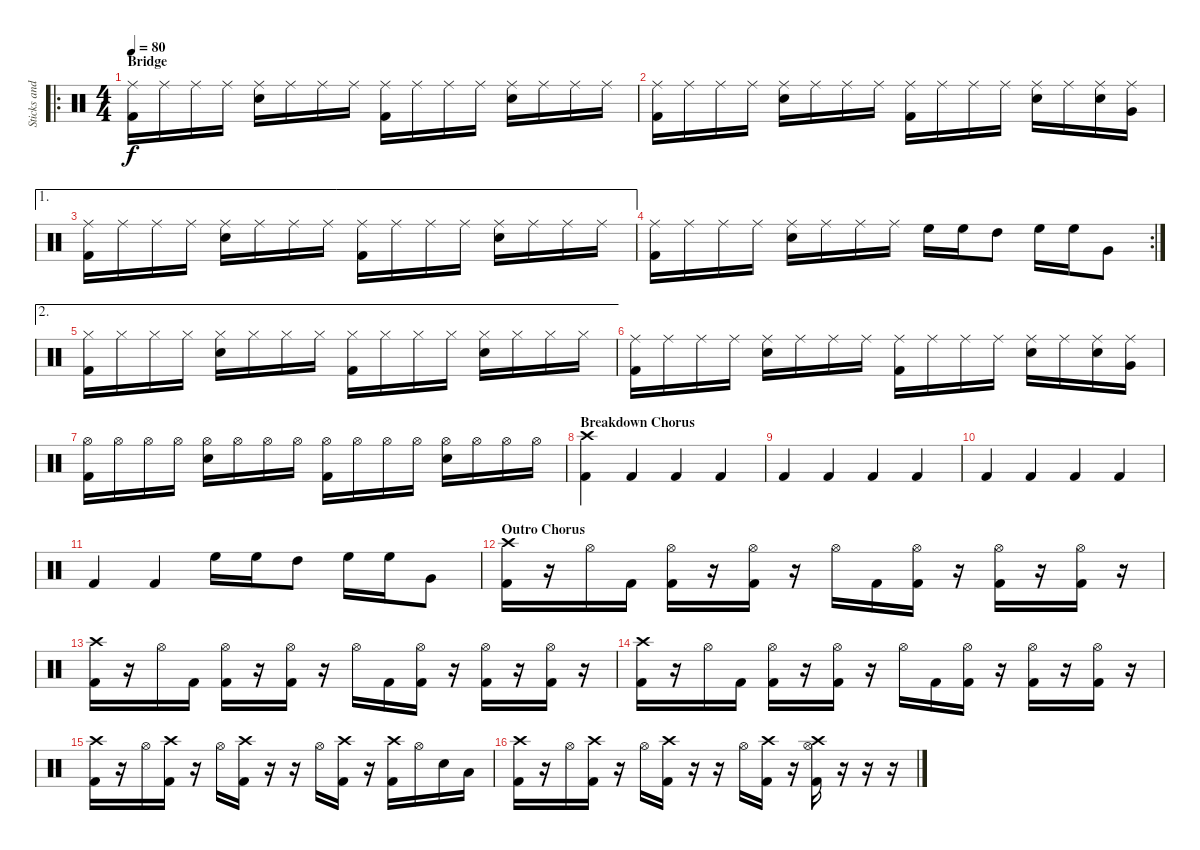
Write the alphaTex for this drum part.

\track ("Sticks and Skins" "Sticks and") {instrument percussion}
\staff {score}
\articulation defaults
\ro
\ts (4 4)
\section ("" "Bridge")
\tempo 80
\clef neutral
\ks c
("Ride (middle)" "Kick (hit) 2").16{dy f} "Ride (middle)".16 "Ride (middle)".16 "Ride (middle)".16 ("Ride (middle)" "Electric Snare (hit)").16 "Ride (middle)".16 "Ride (middle)".16 "Ride (middle)".16 ("Ride (middle)" "Kick (hit) 2").16 "Ride (middle)".16 "Ride (middle)".16 "Ride (middle)".16 ("Ride (middle)" "Electric Snare (hit)").16 "Ride (middle)".16 "Ride (middle)".16 "Ride (middle)".16 |
("Ride (middle)" "Kick (hit) 2").16 "Ride (middle)".16 "Ride (middle)".16 "Ride (middle)".16 ("Ride (middle)" "Electric Snare (hit)").16 "Ride (middle)".16 "Ride (middle)".16 "Ride (middle)".16 ("Ride (middle)" "Kick (hit) 2").16 "Ride (middle)".16 "Ride (middle)".16 "Ride (middle)".16 ("Ride (middle)" "Electric Snare (hit)").16 "Ride (middle)".16 ("Ride (middle)" "Electric Snare (hit)").16 ("Ride (middle)" "Very Low Tom (hit)").16 |
\ae 1
("Ride (middle)" "Kick (hit) 2").16 "Ride (middle)".16 "Ride (middle)".16 "Ride (middle)".16 ("Ride (middle)" "Electric Snare (hit)").16 "Ride (middle)".16 "Ride (middle)".16 "Ride (middle)".16 ("Ride (middle)" "Kick (hit) 2").16 "Ride (middle)".16 "Ride (middle)".16 "Ride (middle)".16 ("Ride (middle)" "Electric Snare (hit)").16 "Ride (middle)".16 "Ride (middle)".16 "Ride (middle)".16 |
\rc 2
("Ride (middle)" "Kick (hit) 2").16 "Ride (middle)".16 "Ride (middle)".16 "Ride (middle)".16 ("Ride (middle)" "Electric Snare (hit)").16 "Ride (middle)".16 "Ride (middle)".16 "Ride (middle)".16 "High Floor Tom (hit)".16 "High Floor Tom (hit)".16 "High Tom (hit)".8 "High Floor Tom (hit)".16 "High Floor Tom (hit)".16 "Very Low Tom (hit)".8 |
\ae 2
("Hi-Hat (closed)" "Kick (hit) 2").16 "Hi-Hat (closed)".16 "Hi-Hat (closed)".16 "Hi-Hat (closed)".16 ("Hi-Hat (closed)" "Electric Snare (hit)").16 "Hi-Hat (closed)".16 "Hi-Hat (closed)".16 "Hi-Hat (closed)".16 ("Hi-Hat (closed)" "Kick (hit) 2").16 "Hi-Hat (closed)".16 "Hi-Hat (closed)".16 "Hi-Hat (closed)".16 ("Hi-Hat (closed)" "Electric Snare (hit)").16 "Hi-Hat (closed)".16 "Hi-Hat (closed)".16 "Hi-Hat (closed)".16 |
("Ride (middle)" "Kick (hit) 2").16 "Ride (middle)".16 "Ride (middle)".16 "Ride (middle)".16 ("Ride (middle)" "Electric Snare (hit)").16 "Ride (middle)".16 "Ride (middle)".16 "Ride (middle)".16 ("Ride (middle)" "Kick (hit) 2").16 "Ride (middle)".16 "Ride (middle)".16 "Ride (middle)".16 ("Ride (middle)" "Electric Snare (hit)").16 "Ride (middle)".16 ("Ride (middle)" "Electric Snare (hit)").16 ("Ride (middle)" "Very Low Tom (hit)").16 |
("Hi-Hat (open)" "Kick (hit) 2").16 "Hi-Hat (open)".16 "Hi-Hat (open)".16 "Hi-Hat (open)".16 ("Hi-Hat (open)" "Electric Snare (hit)").16 "Hi-Hat (open)".16 "Hi-Hat (open)".16 "Hi-Hat (open)".16 ("Hi-Hat (open)" "Kick (hit) 2").16 "Hi-Hat (open)".16 "Hi-Hat (open)".16 "Hi-Hat (open)".16 ("Hi-Hat (open)" "Electric Snare (hit)").16 "Hi-Hat (open)".16 "Hi-Hat (open)".16 "Hi-Hat (open)".16 |
\section ("" "Breakdown Chorus")
("Crash high (hit)" "Kick (hit) 2").4 "Kick (hit) 2".4 "Kick (hit) 2".4 "Kick (hit) 2".4 |
"Kick (hit) 2".4 "Kick (hit) 2".4 "Kick (hit) 2".4 "Kick (hit) 2".4 |
"Kick (hit) 2".4 "Kick (hit) 2".4 "Kick (hit) 2".4 "Kick (hit) 2".4 |
"Kick (hit) 2".4 "Kick (hit) 2".4 "High Floor Tom (hit)".16 "High Floor Tom (hit)".16 "High Tom (hit)".8 "High Floor Tom (hit)".16 "High Floor Tom (hit)".16 "Very Low Tom (hit)".8 |
\section ("" "Outro Chorus")
("Crash high (hit)" "Kick (hit) 2").16 r.16 "Hi-Hat (open)".16 "Kick (hit) 2".16 ("Hi-Hat (open)" "Kick (hit) 2").16 r.16 ("Hi-Hat (open)" "Kick (hit) 2").16 r.16 "Hi-Hat (open)".16 "Kick (hit) 2".16 ("Hi-Hat (open)" "Kick (hit) 2").16 r.16 ("Hi-Hat (open)" "Kick (hit) 2").16 r.16 ("Hi-Hat (open)" "Kick (hit) 2").16 r.16 |
("Crash high (hit)" "Kick (hit) 2").16 r.16 "Hi-Hat (open)".16 "Kick (hit) 2".16 ("Hi-Hat (open)" "Kick (hit) 2").16 r.16 ("Hi-Hat (open)" "Kick (hit) 2").16 r.16 "Hi-Hat (open)".16 "Kick (hit) 2".16 ("Hi-Hat (open)" "Kick (hit) 2").16 r.16 ("Hi-Hat (open)" "Kick (hit) 2").16 r.16 ("Hi-Hat (open)" "Kick (hit) 2").16 r.16 |
("Crash high (hit)" "Kick (hit) 2").16 r.16 "Hi-Hat (open)".16 "Kick (hit) 2".16 ("Hi-Hat (open)" "Kick (hit) 2").16 r.16 ("Hi-Hat (open)" "Kick (hit) 2").16 r.16 "Hi-Hat (open)".16 "Kick (hit) 2".16 ("Hi-Hat (open)" "Kick (hit) 2").16 r.16 ("Hi-Hat (open)" "Kick (hit) 2").16 r.16 ("Hi-Hat (open)" "Kick (hit) 2").16 r.16 |
("Crash high (hit)" "Kick (hit) 2").16 r.16 "Hi-Hat (open)".16 ("Crash high (hit)" "Kick (hit) 2").16 r.16 "Hi-Hat (open)".16 ("Crash high (hit)" "Kick (hit) 2").16 r.16 r.16 "Hi-Hat (open)".16 ("Crash high (hit)" "Kick (hit) 2").16 r.16 ("Crash high (hit)" "Kick (hit) 2").16 "Hi-Hat (open)".16 "Electric Snare (hit)".16 "Low Tom (hit)".16 |
("Crash high (hit)" "Kick (hit) 2").16 r.16 "Hi-Hat (open)".16 ("Crash high (hit)" "Kick (hit) 2").16 r.16 "Hi-Hat (open)".16 ("Crash high (hit)" "Kick (hit) 2").16 r.16 r.16 "Hi-Hat (open)".16 ("Crash high (hit)" "Kick (hit) 2").16 r.16 ("Crash high (hit)" "Hi-Hat (open)" "Kick (hit) 2").16 r.16 r.16 r.16
